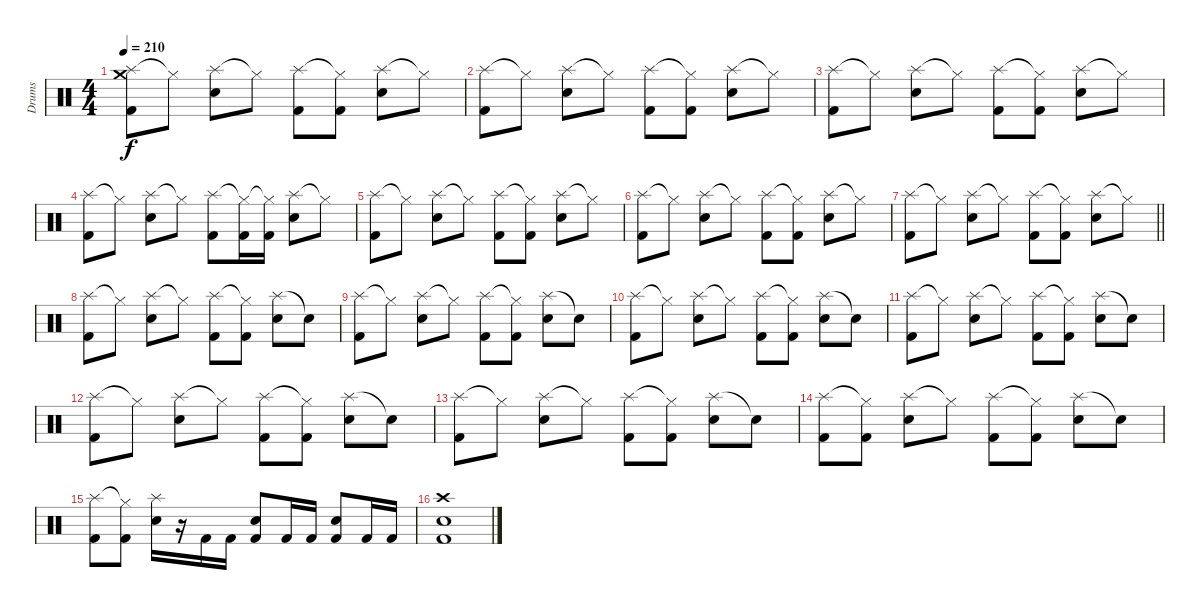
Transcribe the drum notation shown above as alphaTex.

\track ("Drums" "Drums") {instrument percussion}
\staff {score}
\articulation defaults
\ts (4 4)
\tempo 210
\clef neutral
\ks c
("Splash (hit)" "Crash medium (hit)" "Kick (hit) 2").8{dy f} "Hi-Hat (closed)"{t}.8 ("Splash (hit)" "Electric Snare (hit)").8 "Hi-Hat (closed)"{t}.8 ("Splash (hit)" "Kick (hit) 2").8 ("Hi-Hat (closed)"{t} "Kick (hit) 2").8 ("Splash (hit)" "Electric Snare (hit)").8 "Hi-Hat (closed)"{t}.8 |
("Splash (hit)" "Kick (hit) 2").8 "Hi-Hat (closed)"{t}.8 ("Splash (hit)" "Electric Snare (hit)").8 "Hi-Hat (closed)"{t}.8 ("Splash (hit)" "Kick (hit) 2").8 ("Hi-Hat (closed)"{t} "Kick (hit) 2").8 ("Splash (hit)" "Electric Snare (hit)").8 "Hi-Hat (closed)"{t}.8 |
("Splash (hit)" "Kick (hit) 2").8 "Hi-Hat (closed)"{t}.8 ("Splash (hit)" "Electric Snare (hit)").8 "Hi-Hat (closed)"{t}.8 ("Splash (hit)" "Kick (hit) 2").8 ("Hi-Hat (closed)"{t} "Kick (hit) 2").8 ("Splash (hit)" "Electric Snare (hit)").8 "Hi-Hat (closed)"{t}.8 |
("Splash (hit)" "Kick (hit) 2").8 "Hi-Hat (closed)"{t}.8 ("Splash (hit)" "Electric Snare (hit)").8 "Hi-Hat (closed)"{t}.8 ("Splash (hit)" "Kick (hit) 2").8 ("Hi-Hat (closed)"{t} "Kick (hit) 2").16 ("Hi-Hat (closed)"{t} "Kick (hit) 2").16 ("Splash (hit)" "Electric Snare (hit)").8 "Hi-Hat (closed)"{t}.8 |
("Splash (hit)" "Kick (hit) 2").8 "Hi-Hat (closed)"{t}.8 ("Splash (hit)" "Electric Snare (hit)").8 "Hi-Hat (closed)"{t}.8 ("Splash (hit)" "Kick (hit) 2").8 ("Hi-Hat (closed)"{t} "Kick (hit) 2").8 ("Splash (hit)" "Electric Snare (hit)").8 "Hi-Hat (closed)"{t}.8 |
("Splash (hit)" "Kick (hit) 2").8 "Hi-Hat (closed)"{t}.8 ("Splash (hit)" "Electric Snare (hit)").8 "Hi-Hat (closed)"{t}.8 ("Splash (hit)" "Kick (hit) 2").8 ("Hi-Hat (closed)"{t} "Kick (hit) 2").8 ("Splash (hit)" "Electric Snare (hit)").8 "Hi-Hat (closed)"{t}.8 |
\barLineRight lightlight
("Splash (hit)" "Kick (hit) 2").8 "Hi-Hat (closed)"{t}.8 ("Splash (hit)" "Electric Snare (hit)").8 "Hi-Hat (closed)"{t}.8 ("Splash (hit)" "Kick (hit) 2").8 ("Hi-Hat (closed)"{t} "Kick (hit) 2").8 ("Splash (hit)" "Electric Snare (hit)").8 "Hi-Hat (closed)"{t}.8 |
("Splash (hit)" "Kick (hit) 2").8 "Hi-Hat (closed)"{t}.8 ("Splash (hit)" "Electric Snare (hit)").8 "Hi-Hat (closed)"{t}.8 ("Splash (hit)" "Kick (hit) 2").8 ("Hi-Hat (closed)"{t} "Kick (hit) 2").8 ("Splash (hit)" "Electric Snare (hit)").8 "Snare (hit)"{t}.8 |
("Splash (hit)" "Kick (hit) 2").8 "Hi-Hat (closed)"{t}.8 ("Splash (hit)" "Electric Snare (hit)").8 "Hi-Hat (closed)"{t}.8 ("Splash (hit)" "Kick (hit) 2").8 ("Hi-Hat (closed)"{t} "Kick (hit) 2").8 ("Splash (hit)" "Electric Snare (hit)").8 "Snare (hit)"{t}.8 |
("Splash (hit)" "Kick (hit) 2").8 "Hi-Hat (closed)"{t}.8 ("Splash (hit)" "Electric Snare (hit)").8 "Hi-Hat (closed)"{t}.8 ("Splash (hit)" "Kick (hit) 2").8 ("Hi-Hat (closed)"{t} "Kick (hit) 2").8 ("Splash (hit)" "Electric Snare (hit)").8 "Snare (hit)"{t}.8 |
("Splash (hit)" "Kick (hit) 2").8 "Hi-Hat (closed)"{t}.8 ("Splash (hit)" "Electric Snare (hit)").8 "Hi-Hat (closed)"{t}.8 ("Splash (hit)" "Kick (hit) 2").8 ("Hi-Hat (closed)"{t} "Kick (hit) 2").8 ("Splash (hit)" "Electric Snare (hit)").8 "Snare (hit)"{t}.8 |
("Splash (hit)" "Kick (hit) 2").8 "Hi-Hat (closed)"{t}.8 ("Splash (hit)" "Electric Snare (hit)").8 "Hi-Hat (closed)"{t}.8 ("Splash (hit)" "Kick (hit) 2").8 ("Hi-Hat (closed)"{t} "Kick (hit) 2").8 ("Splash (hit)" "Electric Snare (hit)").8 "Snare (hit)"{t}.8 |
("Splash (hit)" "Kick (hit) 2").8 "Hi-Hat (closed)"{t}.8 ("Splash (hit)" "Electric Snare (hit)").8 "Hi-Hat (closed)"{t}.8 ("Splash (hit)" "Kick (hit) 2").8 ("Hi-Hat (closed)"{t} "Kick (hit) 2").8 ("Splash (hit)" "Electric Snare (hit)").8 "Snare (hit)"{t}.8 |
("Splash (hit)" "Kick (hit) 2").8 ("Hi-Hat (closed)"{t} "Kick (hit) 2").8 ("Splash (hit)" "Electric Snare (hit)").8 "Hi-Hat (closed)"{t}.8 ("Splash (hit)" "Kick (hit) 2").8 ("Hi-Hat (closed)"{t} "Kick (hit) 2").8 ("Splash (hit)" "Electric Snare (hit)").8 "Snare (hit)"{t}.8 |
("Splash (hit)" "Kick (hit) 2").8 ("Hi-Hat (closed)"{t} "Kick (hit) 2").8 ("Splash (hit)" "Electric Snare (hit)").16 r.16 "Kick (hit) 2".16 "Kick (hit) 2".16 ("Electric Snare (hit)" "Kick (hit) 2").8 "Kick (hit) 2".16 "Kick (hit) 2".16 ("Electric Snare (hit)" "Kick (hit) 2").8 "Kick (hit) 2".16 "Kick (hit) 2".16 |
("Crash high (hit)" "Electric Snare (hit)" "Kick (hit) 2").1
